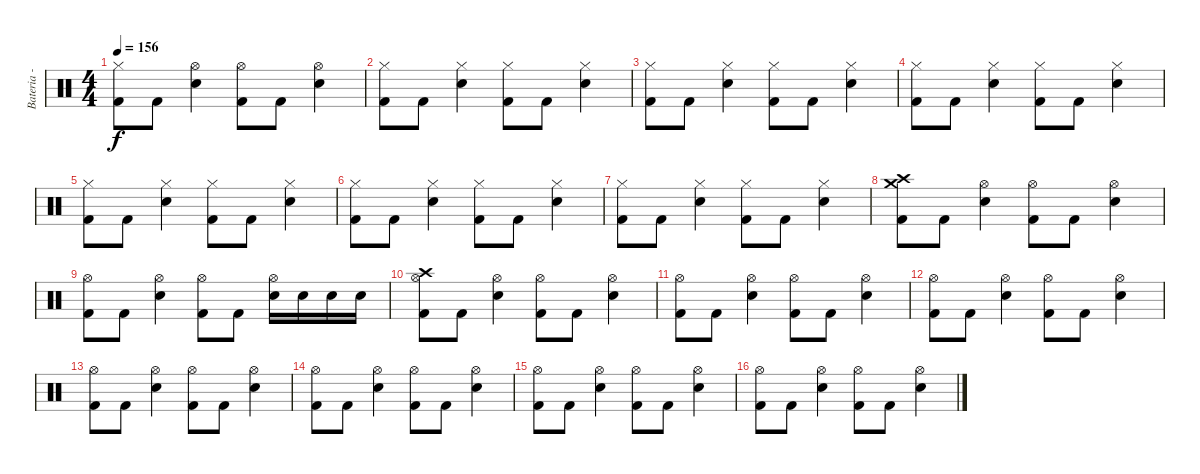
\track ("Bateria - Kalú" "Bateria - ") {instrument percussion}
\staff {score}
\articulation defaults
\ts (4 4)
\tempo 156
\clef neutral
\ks c
("Hi-Hat (closed)" "Kick (hit) 2").8{dy f} "Kick (hit) 2".8 ("Hi-Hat (open)" "Electric Snare (hit)").4 ("Hi-Hat (open)" "Kick (hit) 2").8 "Kick (hit) 2".8 ("Hi-Hat (open)" "Electric Snare (hit)").4 |
("Hi-Hat (closed)" "Kick (hit) 2").8 "Kick (hit) 2".8 ("Hi-Hat (closed)" "Electric Snare (hit)").4 ("Hi-Hat (closed)" "Kick (hit) 2").8 "Kick (hit) 2".8 ("Hi-Hat (closed)" "Electric Snare (hit)").4 |
("Hi-Hat (closed)" "Kick (hit) 2").8 "Kick (hit) 2".8 ("Hi-Hat (closed)" "Electric Snare (hit)").4 ("Hi-Hat (closed)" "Kick (hit) 2").8 "Kick (hit) 2".8 ("Hi-Hat (closed)" "Electric Snare (hit)").4 |
("Hi-Hat (closed)" "Kick (hit) 2").8 "Kick (hit) 2".8 ("Hi-Hat (closed)" "Electric Snare (hit)").4 ("Hi-Hat (closed)" "Kick (hit) 2").8 "Kick (hit) 2".8 ("Hi-Hat (closed)" "Electric Snare (hit)").4 |
("Hi-Hat (closed)" "Kick (hit) 2").8 "Kick (hit) 2".8 ("Hi-Hat (closed)" "Electric Snare (hit)").4 ("Hi-Hat (closed)" "Kick (hit) 2").8 "Kick (hit) 2".8 ("Hi-Hat (closed)" "Electric Snare (hit)").4 |
("Hi-Hat (closed)" "Kick (hit) 2").8 "Kick (hit) 2".8 ("Hi-Hat (closed)" "Electric Snare (hit)").4 ("Hi-Hat (closed)" "Kick (hit) 2").8 "Kick (hit) 2".8 ("Hi-Hat (closed)" "Electric Snare (hit)").4 |
("Hi-Hat (closed)" "Kick (hit) 2").8 "Kick (hit) 2".8 ("Hi-Hat (closed)" "Electric Snare (hit)").4 ("Hi-Hat (closed)" "Kick (hit) 2").8 "Kick (hit) 2".8 ("Hi-Hat (closed)" "Electric Snare (hit)").4 |
("Crash high (hit)" "Crash medium (hit)" "Kick (hit) 2").8 "Kick (hit) 2".8 ("Hi-Hat (open)" "Electric Snare (hit)").4 ("Hi-Hat (open)" "Kick (hit) 2").8 "Kick (hit) 2".8 ("Hi-Hat (open)" "Electric Snare (hit)").4 |
("Hi-Hat (open)" "Kick (hit) 2").8 "Kick (hit) 2".8 ("Hi-Hat (open)" "Electric Snare (hit)").4 ("Hi-Hat (open)" "Kick (hit) 2").8 "Kick (hit) 2".8 ("Hi-Hat (open)" "Electric Snare (hit)").16 "Electric Snare (hit)".16 "Electric Snare (hit)".16 "Electric Snare (hit)".16 |
("Crash high (hit)" "Hi-Hat (open)" "Kick (hit) 2").8 "Kick (hit) 2".8 ("Hi-Hat (open)" "Electric Snare (hit)").4 ("Hi-Hat (open)" "Kick (hit) 2").8 "Kick (hit) 2".8 ("Hi-Hat (open)" "Electric Snare (hit)").4 |
("Hi-Hat (open)" "Kick (hit) 2").8 "Kick (hit) 2".8 ("Hi-Hat (open)" "Electric Snare (hit)").4 ("Hi-Hat (open)" "Kick (hit) 2").8 "Kick (hit) 2".8 ("Hi-Hat (open)" "Electric Snare (hit)").4 |
("Hi-Hat (open)" "Kick (hit) 2").8 "Kick (hit) 2".8 ("Hi-Hat (open)" "Electric Snare (hit)").4 ("Hi-Hat (open)" "Kick (hit) 2").8 "Kick (hit) 2".8 ("Hi-Hat (open)" "Electric Snare (hit)").4 |
("Hi-Hat (open)" "Kick (hit) 2").8 "Kick (hit) 2".8 ("Hi-Hat (open)" "Electric Snare (hit)").4 ("Hi-Hat (open)" "Kick (hit) 2").8 "Kick (hit) 2".8 ("Hi-Hat (open)" "Electric Snare (hit)").4 |
("Hi-Hat (open)" "Kick (hit) 2").8 "Kick (hit) 2".8 ("Hi-Hat (open)" "Electric Snare (hit)").4 ("Hi-Hat (open)" "Kick (hit) 2").8 "Kick (hit) 2".8 ("Hi-Hat (open)" "Electric Snare (hit)").4 |
("Hi-Hat (open)" "Kick (hit) 2").8 "Kick (hit) 2".8 ("Hi-Hat (open)" "Electric Snare (hit)").4 ("Hi-Hat (open)" "Kick (hit) 2").8 "Kick (hit) 2".8 ("Hi-Hat (open)" "Electric Snare (hit)").4 |
("Hi-Hat (open)" "Kick (hit) 2").8 "Kick (hit) 2".8 ("Hi-Hat (open)" "Electric Snare (hit)").4 ("Hi-Hat (open)" "Kick (hit) 2").8 "Kick (hit) 2".8 ("Hi-Hat (open)" "Electric Snare (hit)").4
